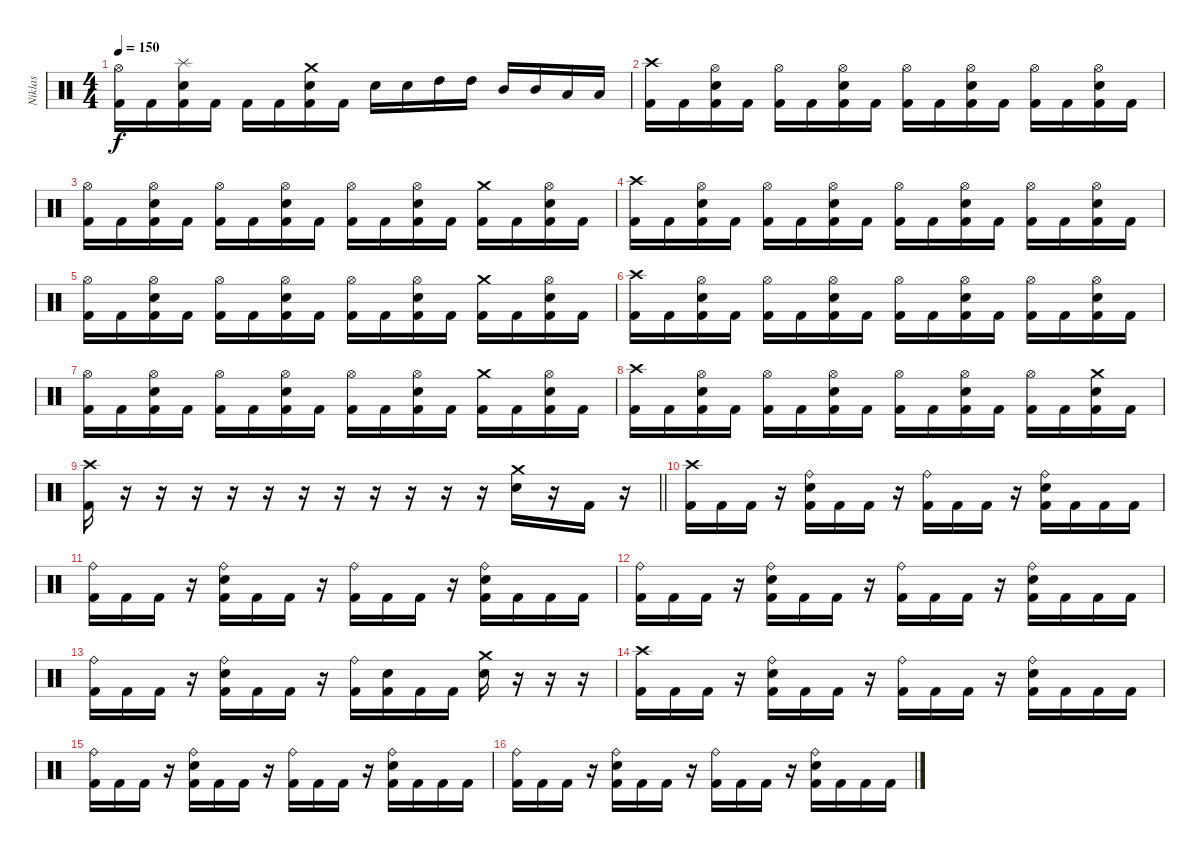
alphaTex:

\track ("Niklas" "Niklas") {instrument percussion}
\staff {score}
\articulation defaults
\ts (4 4)
\tempo 150
\clef neutral
\ks c
("Hi-Hat (open)" "Kick (hit) 2").16{dy f} "Kick (hit) 2".16 ("Splash (hit)" "Electric Snare (hit)" "Kick (hit) 2").16 "Kick (hit) 2".16 "Kick (hit) 2".16 "Kick (hit) 2".16 ("Crash medium (hit)" "Electric Snare (hit)" "Kick (hit) 2").16 "Kick (hit) 2".16 "Electric Snare (hit)".16 "Electric Snare (hit)".16 "High Tom (hit)".16 "High Tom (hit)".16 "Mid Tom (hit)".16 "Mid Tom (hit)".16 "Low Tom (hit)".16 "Low Tom (hit)".16 |
("Crash high (hit)" "Kick (hit) 2").16 "Kick (hit) 2".16 ("Hi-Hat (open)" "Electric Snare (hit)" "Kick (hit) 2").16 "Kick (hit) 2".16 ("Hi-Hat (open)" "Kick (hit) 2").16 "Kick (hit) 2".16 ("Hi-Hat (open)" "Electric Snare (hit)" "Kick (hit) 2").16 "Kick (hit) 2".16 ("Hi-Hat (open)" "Kick (hit) 2").16 "Kick (hit) 2".16 ("Hi-Hat (open)" "Electric Snare (hit)" "Kick (hit) 2").16 "Kick (hit) 2".16 ("Hi-Hat (open)" "Kick (hit) 2").16 "Kick (hit) 2".16 ("Hi-Hat (open)" "Electric Snare (hit)" "Kick (hit) 2").16 "Kick (hit) 2".16 |
("Hi-Hat (open)" "Kick (hit) 2").16 "Kick (hit) 2".16 ("Hi-Hat (open)" "Electric Snare (hit)" "Kick (hit) 2").16 "Kick (hit) 2".16 ("Hi-Hat (open)" "Kick (hit) 2").16 "Kick (hit) 2".16 ("Hi-Hat (open)" "Electric Snare (hit)" "Kick (hit) 2").16 "Kick (hit) 2".16 ("Hi-Hat (open)" "Kick (hit) 2").16 "Kick (hit) 2".16 ("Hi-Hat (open)" "Electric Snare (hit)" "Kick (hit) 2").16 "Kick (hit) 2".16 ("Crash medium (hit)" "Kick (hit) 2").16 "Kick (hit) 2".16 ("Hi-Hat (open)" "Electric Snare (hit)" "Kick (hit) 2").16 "Kick (hit) 2".16 |
("Crash high (hit)" "Kick (hit) 2").16 "Kick (hit) 2".16 ("Hi-Hat (open)" "Electric Snare (hit)" "Kick (hit) 2").16 "Kick (hit) 2".16 ("Hi-Hat (open)" "Kick (hit) 2").16 "Kick (hit) 2".16 ("Hi-Hat (open)" "Electric Snare (hit)" "Kick (hit) 2").16 "Kick (hit) 2".16 ("Hi-Hat (open)" "Kick (hit) 2").16 "Kick (hit) 2".16 ("Hi-Hat (open)" "Electric Snare (hit)" "Kick (hit) 2").16 "Kick (hit) 2".16 ("Hi-Hat (open)" "Kick (hit) 2").16 "Kick (hit) 2".16 ("Hi-Hat (open)" "Electric Snare (hit)" "Kick (hit) 2").16 "Kick (hit) 2".16 |
("Hi-Hat (open)" "Kick (hit) 2").16 "Kick (hit) 2".16 ("Hi-Hat (open)" "Electric Snare (hit)" "Kick (hit) 2").16 "Kick (hit) 2".16 ("Hi-Hat (open)" "Kick (hit) 2").16 "Kick (hit) 2".16 ("Hi-Hat (open)" "Electric Snare (hit)" "Kick (hit) 2").16 "Kick (hit) 2".16 ("Hi-Hat (open)" "Kick (hit) 2").16 "Kick (hit) 2".16 ("Hi-Hat (open)" "Electric Snare (hit)" "Kick (hit) 2").16 "Kick (hit) 2".16 ("Crash medium (hit)" "Kick (hit) 2").16 "Kick (hit) 2".16 ("Hi-Hat (open)" "Electric Snare (hit)" "Kick (hit) 2").16 "Kick (hit) 2".16 |
("Crash high (hit)" "Kick (hit) 2").16 "Kick (hit) 2".16 ("Hi-Hat (open)" "Electric Snare (hit)" "Kick (hit) 2").16 "Kick (hit) 2".16 ("Hi-Hat (open)" "Kick (hit) 2").16 "Kick (hit) 2".16 ("Hi-Hat (open)" "Electric Snare (hit)" "Kick (hit) 2").16 "Kick (hit) 2".16 ("Hi-Hat (open)" "Kick (hit) 2").16 "Kick (hit) 2".16 ("Hi-Hat (open)" "Electric Snare (hit)" "Kick (hit) 2").16 "Kick (hit) 2".16 ("Hi-Hat (open)" "Kick (hit) 2").16 "Kick (hit) 2".16 ("Hi-Hat (open)" "Electric Snare (hit)" "Kick (hit) 2").16 "Kick (hit) 2".16 |
("Hi-Hat (open)" "Kick (hit) 2").16 "Kick (hit) 2".16 ("Hi-Hat (open)" "Electric Snare (hit)" "Kick (hit) 2").16 "Kick (hit) 2".16 ("Hi-Hat (open)" "Kick (hit) 2").16 "Kick (hit) 2".16 ("Hi-Hat (open)" "Electric Snare (hit)" "Kick (hit) 2").16 "Kick (hit) 2".16 ("Hi-Hat (open)" "Kick (hit) 2").16 "Kick (hit) 2".16 ("Hi-Hat (open)" "Electric Snare (hit)" "Kick (hit) 2").16 "Kick (hit) 2".16 ("Crash medium (hit)" "Kick (hit) 2").16 "Kick (hit) 2".16 ("Hi-Hat (open)" "Electric Snare (hit)" "Kick (hit) 2").16 "Kick (hit) 2".16 |
("Crash high (hit)" "Kick (hit) 2").16 "Kick (hit) 2".16 ("Hi-Hat (open)" "Electric Snare (hit)" "Kick (hit) 2").16 "Kick (hit) 2".16 ("Hi-Hat (open)" "Kick (hit) 2").16 "Kick (hit) 2".16 ("Hi-Hat (open)" "Electric Snare (hit)" "Kick (hit) 2").16 "Kick (hit) 2".16 ("Hi-Hat (open)" "Kick (hit) 2").16 "Kick (hit) 2".16 ("Hi-Hat (open)" "Electric Snare (hit)" "Kick (hit) 2").16 "Kick (hit) 2".16 ("Hi-Hat (open)" "Kick (hit) 2").16 "Kick (hit) 2".16 ("Crash medium (hit)" "Electric Snare (hit)" "Kick (hit) 2").16 "Kick (hit) 2".16 |
\barLineRight lightlight
("Crash high (hit)" "Kick (hit) 2").16 r.16 r.16 r.16 r.16 r.16 r.16 r.16 r.16 r.16 r.16 r.16 ("Crash medium (hit)" "Electric Snare (hit)").16 r.16 "Kick (hit) 2".16 r.16 |
\section ("" "")
("Crash high (hit)" "Kick (hit) 2").16 "Kick (hit) 2".16 "Kick (hit) 2".16 r.16 ("Ride (bell)" "Electric Snare (hit)" "Kick (hit) 2").16 "Kick (hit) 2".16 "Kick (hit) 2".16 r.16 ("Ride (bell)" "Kick (hit) 2").16 "Kick (hit) 2".16 "Kick (hit) 2".16 r.16 ("Ride (bell)" "Electric Snare (hit)" "Kick (hit) 2").16 "Kick (hit) 2".16 "Kick (hit) 2".16 "Kick (hit) 2".16 |
("Ride (bell)" "Kick (hit) 2").16 "Kick (hit) 2".16 "Kick (hit) 2".16 r.16 ("Ride (bell)" "Electric Snare (hit)" "Kick (hit) 2").16 "Kick (hit) 2".16 "Kick (hit) 2".16 r.16 ("Ride (bell)" "Kick (hit) 2").16 "Kick (hit) 2".16 "Kick (hit) 2".16 r.16 ("Ride (bell)" "Electric Snare (hit)" "Kick (hit) 2").16 "Kick (hit) 2".16 "Kick (hit) 2".16 "Kick (hit) 2".16 |
("Ride (bell)" "Kick (hit) 2").16 "Kick (hit) 2".16 "Kick (hit) 2".16 r.16 ("Ride (bell)" "Electric Snare (hit)" "Kick (hit) 2").16 "Kick (hit) 2".16 "Kick (hit) 2".16 r.16 ("Ride (bell)" "Kick (hit) 2").16 "Kick (hit) 2".16 "Kick (hit) 2".16 r.16 ("Ride (bell)" "Electric Snare (hit)" "Kick (hit) 2").16 "Kick (hit) 2".16 "Kick (hit) 2".16 "Kick (hit) 2".16 |
("Ride (bell)" "Kick (hit) 2").16 "Kick (hit) 2".16 "Kick (hit) 2".16 r.16 ("Ride (bell)" "Electric Snare (hit)" "Kick (hit) 2").16 "Kick (hit) 2".16 "Kick (hit) 2".16 r.16 ("Ride (bell)" "Kick (hit) 2").16 ("Electric Snare (hit)" "Kick (hit) 2").16 "Kick (hit) 2".16 "Kick (hit) 2".16 ("Crash medium (hit)" "Electric Snare (hit)").16 r.16 r.16 r.16 |
("Crash high (hit)" "Kick (hit) 2").16 "Kick (hit) 2".16 "Kick (hit) 2".16 r.16 ("Ride (bell)" "Electric Snare (hit)" "Kick (hit) 2").16 "Kick (hit) 2".16 "Kick (hit) 2".16 r.16 ("Ride (bell)" "Kick (hit) 2").16 "Kick (hit) 2".16 "Kick (hit) 2".16 r.16 ("Ride (bell)" "Electric Snare (hit)" "Kick (hit) 2").16 "Kick (hit) 2".16 "Kick (hit) 2".16 "Kick (hit) 2".16 |
("Ride (bell)" "Kick (hit) 2").16 "Kick (hit) 2".16 "Kick (hit) 2".16 r.16 ("Ride (bell)" "Electric Snare (hit)" "Kick (hit) 2").16 "Kick (hit) 2".16 "Kick (hit) 2".16 r.16 ("Ride (bell)" "Kick (hit) 2").16 "Kick (hit) 2".16 "Kick (hit) 2".16 r.16 ("Ride (bell)" "Electric Snare (hit)" "Kick (hit) 2").16 "Kick (hit) 2".16 "Kick (hit) 2".16 "Kick (hit) 2".16 |
("Ride (bell)" "Kick (hit) 2").16 "Kick (hit) 2".16 "Kick (hit) 2".16 r.16 ("Ride (bell)" "Electric Snare (hit)" "Kick (hit) 2").16 "Kick (hit) 2".16 "Kick (hit) 2".16 r.16 ("Ride (bell)" "Kick (hit) 2").16 "Kick (hit) 2".16 "Kick (hit) 2".16 r.16 ("Ride (bell)" "Electric Snare (hit)" "Kick (hit) 2").16 "Kick (hit) 2".16 "Kick (hit) 2".16 "Kick (hit) 2".16
